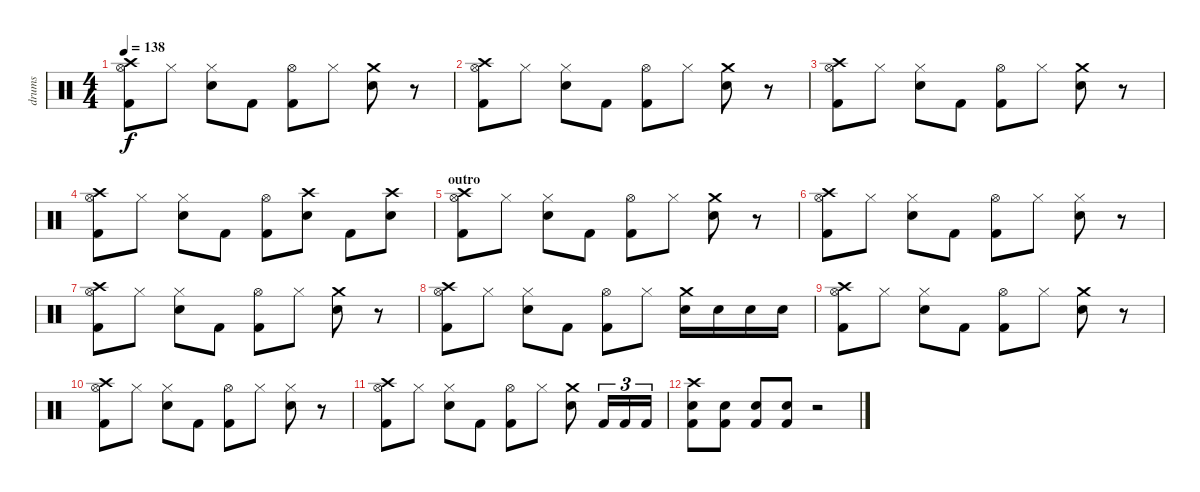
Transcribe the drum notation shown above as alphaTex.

\track ("drums" "drums") {instrument percussion}
\staff {score}
\articulation defaults
\ts (4 4)
\tempo 138
\clef neutral
\ks c
("Crash high (hit)" "Hi-Hat (open)" "Kick (hit) 2").8{dy f} "Hi-Hat (closed)".8 ("Hi-Hat (closed)" "Electric Snare (hit)").8 "Kick (hit) 2".8 ("Hi-Hat (open)" "Kick (hit) 2").8 "Hi-Hat (closed)".8 ("Crash medium (hit)" "Electric Snare (hit)").8 r.8 |
("Crash high (hit)" "Hi-Hat (open)" "Kick (hit) 2").8 "Hi-Hat (closed)".8 ("Hi-Hat (closed)" "Electric Snare (hit)").8 "Kick (hit) 2".8 ("Hi-Hat (open)" "Kick (hit) 2").8 "Hi-Hat (closed)".8 ("Crash medium (hit)" "Electric Snare (hit)").8 r.8 |
("Crash high (hit)" "Hi-Hat (open)" "Kick (hit) 2").8 "Hi-Hat (closed)".8 ("Hi-Hat (closed)" "Electric Snare (hit)").8 "Kick (hit) 2".8 ("Hi-Hat (open)" "Kick (hit) 2").8 "Hi-Hat (closed)".8 ("Crash medium (hit)" "Electric Snare (hit)").8 r.8 |
("Crash high (hit)" "Hi-Hat (open)" "Kick (hit) 2").8 "Hi-Hat (closed)".8 ("Hi-Hat (closed)" "Electric Snare (hit)").8 "Kick (hit) 2".8 ("Hi-Hat (open)" "Kick (hit) 2").8 ("Crash high (hit)" "Electric Snare (hit)").8 "Kick (hit) 2".8 ("Crash high (hit)" "Electric Snare (hit)").8 |
\section ("" "outro")
("Crash high (hit)" "Hi-Hat (open)" "Kick (hit) 2").8 "Hi-Hat (closed)".8 ("Hi-Hat (closed)" "Electric Snare (hit)").8 "Kick (hit) 2".8 ("Hi-Hat (open)" "Kick (hit) 2").8 "Hi-Hat (closed)".8 ("Crash medium (hit)" "Electric Snare (hit)").8 r.8 |
("Crash high (hit)" "Hi-Hat (open)" "Kick (hit) 2").8 "Hi-Hat (closed)".8 ("Hi-Hat (closed)" "Electric Snare (hit)").8 "Kick (hit) 2".8 ("Hi-Hat (open)" "Kick (hit) 2").8 "Hi-Hat (closed)".8 ("Hi-Hat (closed)" "Electric Snare (hit)").8 r.8 |
("Crash high (hit)" "Hi-Hat (open)" "Kick (hit) 2").8 "Hi-Hat (closed)".8 ("Hi-Hat (closed)" "Electric Snare (hit)").8 "Kick (hit) 2".8 ("Hi-Hat (open)" "Kick (hit) 2").8 "Hi-Hat (closed)".8 ("Crash medium (hit)" "Electric Snare (hit)").8 r.8 |
("Crash high (hit)" "Hi-Hat (open)" "Kick (hit) 2").8 "Hi-Hat (closed)".8 ("Hi-Hat (closed)" "Electric Snare (hit)").8 "Kick (hit) 2".8 ("Hi-Hat (open)" "Kick (hit) 2").8 "Hi-Hat (closed)".8 ("Crash medium (hit)" "Electric Snare (hit)").16 "Electric Snare (hit)".16 "Electric Snare (hit)".16 "Electric Snare (hit)".16 |
("Crash high (hit)" "Hi-Hat (open)" "Kick (hit) 2").8 "Hi-Hat (closed)".8 ("Hi-Hat (closed)" "Electric Snare (hit)").8 "Kick (hit) 2".8 ("Hi-Hat (open)" "Kick (hit) 2").8 "Hi-Hat (closed)".8 ("Crash medium (hit)" "Electric Snare (hit)").8 r.8 |
("Crash high (hit)" "Hi-Hat (open)" "Kick (hit) 2").8 "Hi-Hat (closed)".8 ("Hi-Hat (closed)" "Electric Snare (hit)").8 "Kick (hit) 2".8 ("Hi-Hat (open)" "Kick (hit) 2").8 "Hi-Hat (closed)".8 ("Hi-Hat (closed)" "Electric Snare (hit)").8 r.8 |
("Crash high (hit)" "Hi-Hat (open)" "Kick (hit) 2").8 "Hi-Hat (closed)".8 ("Hi-Hat (closed)" "Electric Snare (hit)").8 "Kick (hit) 2".8 ("Hi-Hat (open)" "Kick (hit) 2").8 "Hi-Hat (closed)".8 ("Crash medium (hit)" "Electric Snare (hit)").8 "Kick (hit) 2".16{tu (3 2)} "Kick (hit) 2".16{tu (3 2)} "Kick (hit) 2".16{tu (3 2)} |
("Crash high (hit)" "Electric Snare (hit)" "Kick (hit) 2").8 ("Electric Snare (hit)" "Kick (hit) 2").8 ("Electric Snare (hit)" "Kick (hit) 2").8 ("Electric Snare (hit)" "Kick (hit) 2").8 r.2
